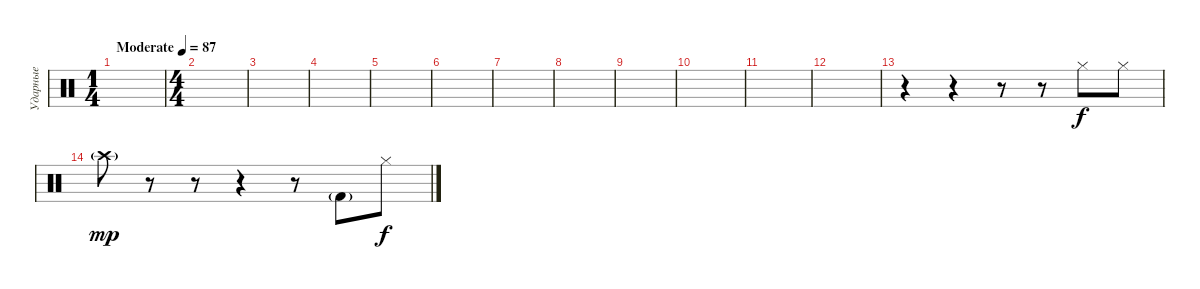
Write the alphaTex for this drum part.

\track ("Ударные" "Ударные") {instrument percussion}
\staff {score}
\articulation defaults
\ts (1 4)
\tempo (87 "Moderate")
\clef neutral
\ks c
|
\ts (4 4)
|
|
|
|
|
|
|
|
|
|
|
r.4 r.4 r.8 r.8 "Hi-Hat (closed)".8 "Hi-Hat (closed)".8 |
"Crash high (hit)"{g}.8{dy mp} r.8 r.8 r.4 r.8 "Kick (hit) 2"{g}.8 "Hi-Hat (closed)".8{dy f}
